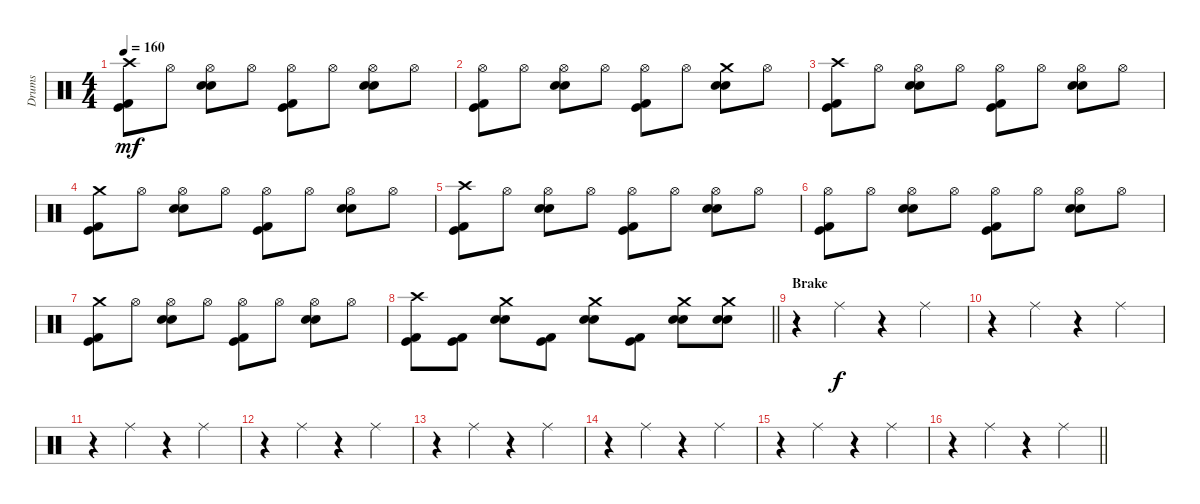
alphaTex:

\track ("Drums" "Drums") {instrument percussion}
\staff {score}
\articulation defaults
\ts (4 4)
\tempo 160
\clef neutral
\ks c
("Crash high (hit)" "Kick (hit) 2" "Kick (hit)").8{dy mf} "Hi-Hat (open)".8 ("Hi-Hat (open)" "Snare (hit) 2" "Electric Snare (hit)").8 "Hi-Hat (open)".8 ("Hi-Hat (open)" "Kick (hit) 2" "Kick (hit)").8 "Hi-Hat (open)".8 ("Hi-Hat (open)" "Snare (hit) 2" "Electric Snare (hit)").8 "Hi-Hat (open)".8 |
("Hi-Hat (open)" "Kick (hit) 2" "Kick (hit)").8 "Hi-Hat (open)".8 ("Hi-Hat (open)" "Snare (hit) 2" "Electric Snare (hit)").8 "Hi-Hat (open)".8 ("Hi-Hat (open)" "Kick (hit) 2" "Kick (hit)").8 "Hi-Hat (open)".8 ("Crash medium (hit)" "Snare (hit) 2" "Electric Snare (hit)").8 "Hi-Hat (open)".8 |
("Crash high (hit)" "Kick (hit) 2" "Kick (hit)").8 "Hi-Hat (open)".8 ("Hi-Hat (open)" "Snare (hit) 2" "Electric Snare (hit)").8 "Hi-Hat (open)".8 ("Hi-Hat (open)" "Kick (hit) 2" "Kick (hit)").8 "Hi-Hat (open)".8 ("Hi-Hat (open)" "Snare (hit) 2" "Electric Snare (hit)").8 "Hi-Hat (open)".8 |
("Crash medium (hit)" "Kick (hit) 2" "Kick (hit)").8 "Hi-Hat (open)".8 ("Hi-Hat (open)" "Snare (hit) 2" "Electric Snare (hit)").8 "Hi-Hat (open)".8 ("Hi-Hat (open)" "Kick (hit) 2" "Kick (hit)").8 "Hi-Hat (open)".8 ("Hi-Hat (open)" "Snare (hit) 2" "Electric Snare (hit)").8 "Hi-Hat (open)".8 |
("Crash high (hit)" "Kick (hit) 2" "Kick (hit)").8 "Hi-Hat (open)".8 ("Hi-Hat (open)" "Snare (hit) 2" "Electric Snare (hit)").8 "Hi-Hat (open)".8 ("Hi-Hat (open)" "Kick (hit) 2" "Kick (hit)").8 "Hi-Hat (open)".8 ("Hi-Hat (open)" "Snare (hit) 2" "Electric Snare (hit)").8 "Hi-Hat (open)".8 |
("Hi-Hat (open)" "Kick (hit) 2" "Kick (hit)").8 "Hi-Hat (open)".8 ("Hi-Hat (open)" "Snare (hit) 2" "Electric Snare (hit)").8 "Hi-Hat (open)".8 ("Hi-Hat (open)" "Kick (hit) 2" "Kick (hit)").8 "Hi-Hat (open)".8 ("Hi-Hat (open)" "Snare (hit) 2" "Electric Snare (hit)").8 "Hi-Hat (open)".8 |
("Crash medium (hit)" "Kick (hit) 2" "Kick (hit)").8 "Hi-Hat (open)".8 ("Hi-Hat (open)" "Snare (hit) 2" "Electric Snare (hit)").8 "Hi-Hat (open)".8 ("Hi-Hat (open)" "Kick (hit) 2" "Kick (hit)").8 "Hi-Hat (open)".8 ("Hi-Hat (open)" "Snare (hit) 2" "Electric Snare (hit)").8 "Hi-Hat (open)".8 |
\barLineRight lightlight
("Crash high (hit)" "Kick (hit) 2" "Kick (hit)").8 ("Kick (hit) 2" "Kick (hit)").8 ("Crash medium (hit)" "Snare (hit) 2" "Electric Snare (hit)").8 ("Kick (hit) 2" "Kick (hit)").8 ("Crash medium (hit)" "Snare (hit) 2" "Electric Snare (hit)").8 ("Kick (hit) 2" "Kick (hit)").8 ("Crash medium (hit)" "Snare (hit) 2" "Electric Snare (hit)").8 ("Crash medium (hit)" "Snare (hit) 2" "Electric Snare (hit)").8 |
\section ("" "Brake")
r.4 "Ride (middle)".4{dy f} r.4 "Ride (middle)".4 |
r.4 "Ride (middle)".4 r.4 "Ride (middle)".4 |
r.4 "Ride (middle)".4 r.4 "Ride (middle)".4 |
r.4 "Ride (middle)".4 r.4 "Ride (middle)".4 |
r.4 "Ride (middle)".4 r.4 "Ride (middle)".4 |
r.4 "Ride (middle)".4 r.4 "Ride (middle)".4 |
r.4 "Ride (middle)".4 r.4 "Ride (middle)".4 |
\barLineRight lightlight
r.4 "Ride (middle)".4 r.4 "Ride (middle)".4
